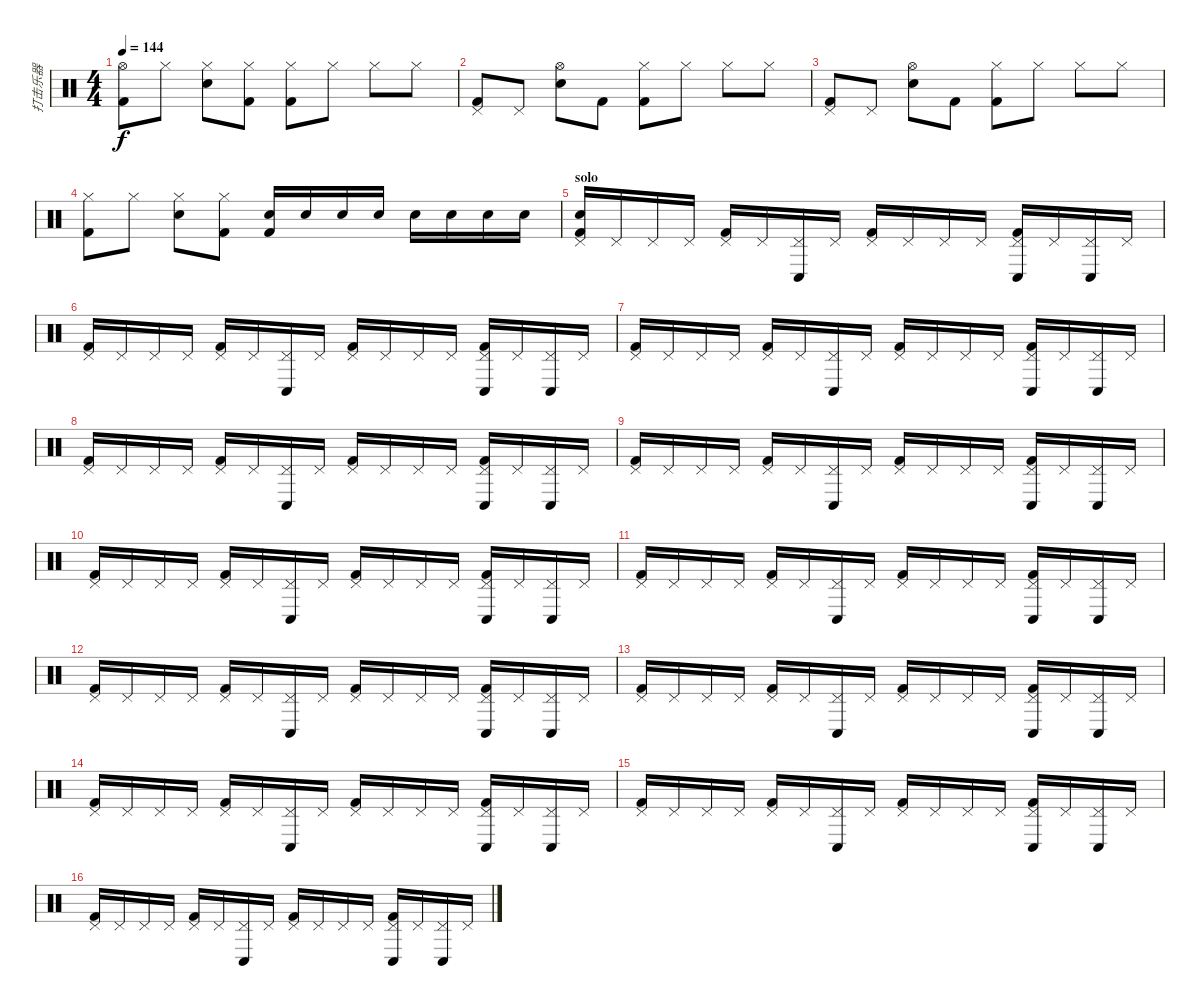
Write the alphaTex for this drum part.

\track ("打击乐器" "打击乐器") {instrument percussion}
\staff {score}
\articulation defaults
\ts (4 4)
\tempo 144
\clef neutral
\ks c
("Hi-Hat (open)" "Kick (hit) 2").8{dy f} "Hi-Hat (closed)".8 ("Hi-Hat (closed)" "Electric Snare (hit)").8 ("Hi-Hat (closed)" "Kick (hit) 2").8 ("Hi-Hat (closed)" "Kick (hit) 2").8 "Hi-Hat (closed)".8 "Hi-Hat (closed)".8 "Hi-Hat (closed)".8 |
("Pedal Hi-Hat (hit)" "Kick (hit) 2").8 "Pedal Hi-Hat (hit)".8 ("Hi-Hat (open)" "Electric Snare (hit)").8 "Kick (hit) 2".8 ("Hi-Hat (closed)" "Kick (hit) 2").8 "Hi-Hat (closed)".8 "Hi-Hat (closed)".8 "Hi-Hat (closed)".8 |
("Pedal Hi-Hat (hit)" "Kick (hit) 2").8 "Pedal Hi-Hat (hit)".8 ("Hi-Hat (open)" "Electric Snare (hit)").8 "Kick (hit) 2".8 ("Hi-Hat (closed)" "Kick (hit) 2").8 "Hi-Hat (closed)".8 "Hi-Hat (closed)".8 "Hi-Hat (closed)".8 |
("Hi-Hat (closed)" "Kick (hit) 2").8 "Hi-Hat (closed)".8 ("Hi-Hat (closed)" "Electric Snare (hit)").8 ("Hi-Hat (closed)" "Kick (hit) 2").8 ("Electric Snare (hit)" "Kick (hit) 2").16 "Electric Snare (hit)".16 "Electric Snare (hit)".16 "Electric Snare (hit)".16 "Electric Snare (hit)".16 "Electric Snare (hit)".16 "Electric Snare (hit)".16 "Electric Snare (hit)".16 |
\section ("" "solo")
("Pedal Hi-Hat (hit)" "Electric Snare (hit)" "Kick (hit) 2").16 "Pedal Hi-Hat (hit)".16 "Pedal Hi-Hat (hit)".16 "Pedal Hi-Hat (hit)".16 ("Pedal Hi-Hat (hit)" "Kick (hit) 2").16 "Pedal Hi-Hat (hit)".16 ("Pedal Hi-Hat (hit)" "Conga low (hit)").16 "Pedal Hi-Hat (hit)".16 ("Pedal Hi-Hat (hit)" "Kick (hit) 2").16 "Pedal Hi-Hat (hit)".16 "Pedal Hi-Hat (hit)".16 "Pedal Hi-Hat (hit)".16 ("Pedal Hi-Hat (hit)" "Conga low (hit)" "Kick (hit) 2").16 "Pedal Hi-Hat (hit)".16 ("Pedal Hi-Hat (hit)" "Conga low (hit)").16 "Pedal Hi-Hat (hit)".16 |
("Pedal Hi-Hat (hit)" "Kick (hit) 2").16 "Pedal Hi-Hat (hit)".16 "Pedal Hi-Hat (hit)".16 "Pedal Hi-Hat (hit)".16 ("Pedal Hi-Hat (hit)" "Kick (hit) 2").16 "Pedal Hi-Hat (hit)".16 ("Pedal Hi-Hat (hit)" "Conga low (hit)").16 "Pedal Hi-Hat (hit)".16 ("Pedal Hi-Hat (hit)" "Kick (hit) 2").16 "Pedal Hi-Hat (hit)".16 "Pedal Hi-Hat (hit)".16 "Pedal Hi-Hat (hit)".16 ("Pedal Hi-Hat (hit)" "Conga low (hit)" "Kick (hit) 2").16 "Pedal Hi-Hat (hit)".16 ("Pedal Hi-Hat (hit)" "Conga low (hit)").16 "Pedal Hi-Hat (hit)".16 |
("Pedal Hi-Hat (hit)" "Kick (hit) 2").16 "Pedal Hi-Hat (hit)".16 "Pedal Hi-Hat (hit)".16 "Pedal Hi-Hat (hit)".16 ("Pedal Hi-Hat (hit)" "Kick (hit) 2").16 "Pedal Hi-Hat (hit)".16 ("Pedal Hi-Hat (hit)" "Conga low (hit)").16 "Pedal Hi-Hat (hit)".16 ("Pedal Hi-Hat (hit)" "Kick (hit) 2").16 "Pedal Hi-Hat (hit)".16 "Pedal Hi-Hat (hit)".16 "Pedal Hi-Hat (hit)".16 ("Pedal Hi-Hat (hit)" "Conga low (hit)" "Kick (hit) 2").16 "Pedal Hi-Hat (hit)".16 ("Pedal Hi-Hat (hit)" "Conga low (hit)").16 "Pedal Hi-Hat (hit)".16 |
("Pedal Hi-Hat (hit)" "Kick (hit) 2").16 "Pedal Hi-Hat (hit)".16 "Pedal Hi-Hat (hit)".16 "Pedal Hi-Hat (hit)".16 ("Pedal Hi-Hat (hit)" "Kick (hit) 2").16 "Pedal Hi-Hat (hit)".16 ("Pedal Hi-Hat (hit)" "Conga low (hit)").16 "Pedal Hi-Hat (hit)".16 ("Pedal Hi-Hat (hit)" "Kick (hit) 2").16 "Pedal Hi-Hat (hit)".16 "Pedal Hi-Hat (hit)".16 "Pedal Hi-Hat (hit)".16 ("Pedal Hi-Hat (hit)" "Conga low (hit)" "Kick (hit) 2").16 "Pedal Hi-Hat (hit)".16 ("Pedal Hi-Hat (hit)" "Conga low (hit)").16 "Pedal Hi-Hat (hit)".16 |
("Pedal Hi-Hat (hit)" "Kick (hit) 2").16 "Pedal Hi-Hat (hit)".16 "Pedal Hi-Hat (hit)".16 "Pedal Hi-Hat (hit)".16 ("Pedal Hi-Hat (hit)" "Kick (hit) 2").16 "Pedal Hi-Hat (hit)".16 ("Pedal Hi-Hat (hit)" "Conga low (hit)").16 "Pedal Hi-Hat (hit)".16 ("Pedal Hi-Hat (hit)" "Kick (hit) 2").16 "Pedal Hi-Hat (hit)".16 "Pedal Hi-Hat (hit)".16 "Pedal Hi-Hat (hit)".16 ("Pedal Hi-Hat (hit)" "Conga low (hit)" "Kick (hit) 2").16 "Pedal Hi-Hat (hit)".16 ("Pedal Hi-Hat (hit)" "Conga low (hit)").16 "Pedal Hi-Hat (hit)".16 |
("Pedal Hi-Hat (hit)" "Kick (hit) 2").16 "Pedal Hi-Hat (hit)".16 "Pedal Hi-Hat (hit)".16 "Pedal Hi-Hat (hit)".16 ("Pedal Hi-Hat (hit)" "Kick (hit) 2").16 "Pedal Hi-Hat (hit)".16 ("Pedal Hi-Hat (hit)" "Conga low (hit)").16 "Pedal Hi-Hat (hit)".16 ("Pedal Hi-Hat (hit)" "Kick (hit) 2").16 "Pedal Hi-Hat (hit)".16 "Pedal Hi-Hat (hit)".16 "Pedal Hi-Hat (hit)".16 ("Pedal Hi-Hat (hit)" "Conga low (hit)" "Kick (hit) 2").16 "Pedal Hi-Hat (hit)".16 ("Pedal Hi-Hat (hit)" "Conga low (hit)").16 "Pedal Hi-Hat (hit)".16 |
("Pedal Hi-Hat (hit)" "Kick (hit) 2").16 "Pedal Hi-Hat (hit)".16 "Pedal Hi-Hat (hit)".16 "Pedal Hi-Hat (hit)".16 ("Pedal Hi-Hat (hit)" "Kick (hit) 2").16 "Pedal Hi-Hat (hit)".16 ("Pedal Hi-Hat (hit)" "Conga low (hit)").16 "Pedal Hi-Hat (hit)".16 ("Pedal Hi-Hat (hit)" "Kick (hit) 2").16 "Pedal Hi-Hat (hit)".16 "Pedal Hi-Hat (hit)".16 "Pedal Hi-Hat (hit)".16 ("Pedal Hi-Hat (hit)" "Conga low (hit)" "Kick (hit) 2").16 "Pedal Hi-Hat (hit)".16 ("Pedal Hi-Hat (hit)" "Conga low (hit)").16 "Pedal Hi-Hat (hit)".16 |
("Pedal Hi-Hat (hit)" "Kick (hit) 2").16 "Pedal Hi-Hat (hit)".16 "Pedal Hi-Hat (hit)".16 "Pedal Hi-Hat (hit)".16 ("Pedal Hi-Hat (hit)" "Kick (hit) 2").16 "Pedal Hi-Hat (hit)".16 ("Pedal Hi-Hat (hit)" "Conga low (hit)").16 "Pedal Hi-Hat (hit)".16 ("Pedal Hi-Hat (hit)" "Kick (hit) 2").16 "Pedal Hi-Hat (hit)".16 "Pedal Hi-Hat (hit)".16 "Pedal Hi-Hat (hit)".16 ("Pedal Hi-Hat (hit)" "Conga low (hit)" "Kick (hit) 2").16 "Pedal Hi-Hat (hit)".16 ("Pedal Hi-Hat (hit)" "Conga low (hit)").16 "Pedal Hi-Hat (hit)".16 |
("Pedal Hi-Hat (hit)" "Kick (hit) 2").16 "Pedal Hi-Hat (hit)".16 "Pedal Hi-Hat (hit)".16 "Pedal Hi-Hat (hit)".16 ("Pedal Hi-Hat (hit)" "Kick (hit) 2").16 "Pedal Hi-Hat (hit)".16 ("Pedal Hi-Hat (hit)" "Conga low (hit)").16 "Pedal Hi-Hat (hit)".16 ("Pedal Hi-Hat (hit)" "Kick (hit) 2").16 "Pedal Hi-Hat (hit)".16 "Pedal Hi-Hat (hit)".16 "Pedal Hi-Hat (hit)".16 ("Pedal Hi-Hat (hit)" "Conga low (hit)" "Kick (hit) 2").16 "Pedal Hi-Hat (hit)".16 ("Pedal Hi-Hat (hit)" "Conga low (hit)").16 "Pedal Hi-Hat (hit)".16 |
("Pedal Hi-Hat (hit)" "Kick (hit) 2").16 "Pedal Hi-Hat (hit)".16 "Pedal Hi-Hat (hit)".16 "Pedal Hi-Hat (hit)".16 ("Pedal Hi-Hat (hit)" "Kick (hit) 2").16 "Pedal Hi-Hat (hit)".16 ("Pedal Hi-Hat (hit)" "Conga low (hit)").16 "Pedal Hi-Hat (hit)".16 ("Pedal Hi-Hat (hit)" "Kick (hit) 2").16 "Pedal Hi-Hat (hit)".16 "Pedal Hi-Hat (hit)".16 "Pedal Hi-Hat (hit)".16 ("Pedal Hi-Hat (hit)" "Conga low (hit)" "Kick (hit) 2").16 "Pedal Hi-Hat (hit)".16 ("Pedal Hi-Hat (hit)" "Conga low (hit)").16 "Pedal Hi-Hat (hit)".16 |
("Pedal Hi-Hat (hit)" "Kick (hit) 2").16 "Pedal Hi-Hat (hit)".16 "Pedal Hi-Hat (hit)".16 "Pedal Hi-Hat (hit)".16 ("Pedal Hi-Hat (hit)" "Kick (hit) 2").16 "Pedal Hi-Hat (hit)".16 ("Pedal Hi-Hat (hit)" "Conga low (hit)").16 "Pedal Hi-Hat (hit)".16 ("Pedal Hi-Hat (hit)" "Kick (hit) 2").16 "Pedal Hi-Hat (hit)".16 "Pedal Hi-Hat (hit)".16 "Pedal Hi-Hat (hit)".16 ("Pedal Hi-Hat (hit)" "Conga low (hit)" "Kick (hit) 2").16 "Pedal Hi-Hat (hit)".16 ("Pedal Hi-Hat (hit)" "Conga low (hit)").16 "Pedal Hi-Hat (hit)".16 |
("Pedal Hi-Hat (hit)" "Kick (hit) 2").16 "Pedal Hi-Hat (hit)".16 "Pedal Hi-Hat (hit)".16 "Pedal Hi-Hat (hit)".16 ("Pedal Hi-Hat (hit)" "Kick (hit) 2").16 "Pedal Hi-Hat (hit)".16 ("Pedal Hi-Hat (hit)" "Conga low (hit)").16 "Pedal Hi-Hat (hit)".16 ("Pedal Hi-Hat (hit)" "Kick (hit) 2").16 "Pedal Hi-Hat (hit)".16 "Pedal Hi-Hat (hit)".16 "Pedal Hi-Hat (hit)".16 ("Pedal Hi-Hat (hit)" "Conga low (hit)" "Kick (hit) 2").16 "Pedal Hi-Hat (hit)".16 ("Pedal Hi-Hat (hit)" "Conga low (hit)").16 "Pedal Hi-Hat (hit)".16
